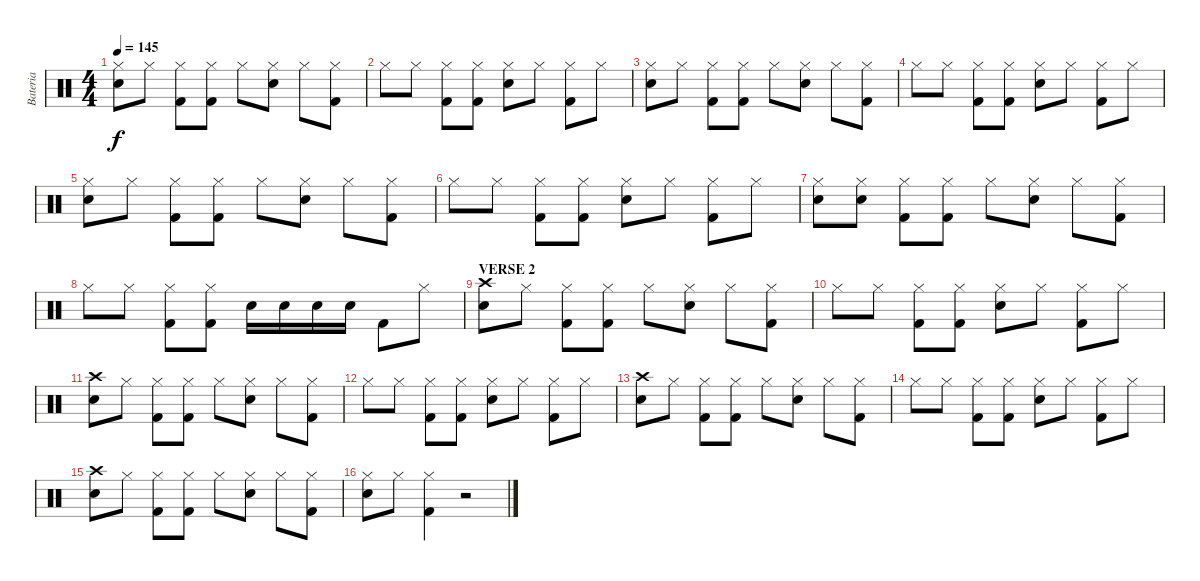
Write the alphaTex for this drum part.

\track ("Bateria" "Bateria") {instrument percussion}
\staff {score}
\articulation defaults
\ts (4 4)
\tempo 145
\clef neutral
\ks c
("Hi-Hat (closed)" "Snare (hit) 2").8{dy f} "Hi-Hat (closed)".8 ("Hi-Hat (closed)" "Kick (hit) 2").8 ("Hi-Hat (closed)" "Kick (hit) 2").8 "Hi-Hat (closed)".8 ("Hi-Hat (closed)" "Snare (hit) 2").8 "Hi-Hat (closed)".8 ("Hi-Hat (closed)" "Kick (hit) 2").8 |
"Hi-Hat (closed)".8 "Hi-Hat (closed)".8 ("Hi-Hat (closed)" "Kick (hit) 2").8 ("Hi-Hat (closed)" "Kick (hit) 2").8 ("Hi-Hat (closed)" "Snare (hit) 2").8 "Hi-Hat (closed)".8 ("Hi-Hat (closed)" "Kick (hit) 2").8 "Hi-Hat (closed)".8 |
("Hi-Hat (closed)" "Snare (hit) 2").8 "Hi-Hat (closed)".8 ("Hi-Hat (closed)" "Kick (hit) 2").8 ("Hi-Hat (closed)" "Kick (hit) 2").8 "Hi-Hat (closed)".8 ("Hi-Hat (closed)" "Snare (hit) 2").8 "Hi-Hat (closed)".8 ("Hi-Hat (closed)" "Kick (hit) 2").8 |
"Hi-Hat (closed)".8 "Hi-Hat (closed)".8 ("Hi-Hat (closed)" "Kick (hit) 2").8 ("Hi-Hat (closed)" "Kick (hit) 2").8 ("Hi-Hat (closed)" "Snare (hit) 2").8 "Hi-Hat (closed)".8 ("Hi-Hat (closed)" "Kick (hit) 2").8 "Hi-Hat (closed)".8 |
("Hi-Hat (closed)" "Snare (hit) 2").8 "Hi-Hat (closed)".8 ("Hi-Hat (closed)" "Kick (hit) 2").8 ("Hi-Hat (closed)" "Kick (hit) 2").8 "Hi-Hat (closed)".8 ("Hi-Hat (closed)" "Snare (hit) 2").8 "Hi-Hat (closed)".8 ("Hi-Hat (closed)" "Kick (hit) 2").8 |
"Hi-Hat (closed)".8 "Hi-Hat (closed)".8 ("Hi-Hat (closed)" "Kick (hit) 2").8 ("Hi-Hat (closed)" "Kick (hit) 2").8 ("Hi-Hat (closed)" "Snare (hit) 2").8 "Hi-Hat (closed)".8 ("Hi-Hat (closed)" "Kick (hit) 2").8 "Hi-Hat (closed)".8 |
("Hi-Hat (closed)" "Snare (hit) 2").8 ("Snare (hit)" "Hi-Hat (closed)").8 ("Hi-Hat (closed)" "Kick (hit) 2").8 ("Hi-Hat (closed)" "Kick (hit) 2").8 "Hi-Hat (closed)".8 ("Hi-Hat (closed)" "Snare (hit) 2").8 "Hi-Hat (closed)".8 ("Hi-Hat (closed)" "Kick (hit) 2").8 |
"Hi-Hat (closed)".8 "Hi-Hat (closed)".8 ("Hi-Hat (closed)" "Kick (hit) 2").8 ("Hi-Hat (closed)" "Kick (hit) 2").8 "Snare (hit) 2".16 "Snare (hit) 2".16 "Snare (hit) 2".16 "Snare (hit) 2".16 "Kick (hit) 2".8 "Hi-Hat (closed)".8 |
\section ("" "VERSE 2")
("Crash high (hit)" "Snare (hit) 2").8 "Hi-Hat (closed)".8 ("Hi-Hat (closed)" "Kick (hit) 2").8 ("Hi-Hat (closed)" "Kick (hit) 2").8 "Hi-Hat (closed)".8 ("Hi-Hat (closed)" "Snare (hit) 2").8 "Hi-Hat (closed)".8 ("Hi-Hat (closed)" "Kick (hit) 2").8 |
"Hi-Hat (closed)".8 "Hi-Hat (closed)".8 ("Hi-Hat (closed)" "Kick (hit) 2").8 ("Hi-Hat (closed)" "Kick (hit) 2").8 ("Hi-Hat (closed)" "Snare (hit) 2").8 "Hi-Hat (closed)".8 ("Hi-Hat (closed)" "Kick (hit) 2").8 "Hi-Hat (closed)".8 |
("Crash high (hit)" "Snare (hit) 2").8 "Hi-Hat (closed)".8 ("Hi-Hat (closed)" "Kick (hit) 2").8 ("Hi-Hat (closed)" "Kick (hit) 2").8 "Hi-Hat (closed)".8 ("Hi-Hat (closed)" "Snare (hit) 2").8 "Hi-Hat (closed)".8 ("Hi-Hat (closed)" "Kick (hit) 2").8 |
"Hi-Hat (closed)".8 "Hi-Hat (closed)".8 ("Hi-Hat (closed)" "Kick (hit) 2").8 ("Hi-Hat (closed)" "Kick (hit) 2").8 ("Hi-Hat (closed)" "Snare (hit) 2").8 "Hi-Hat (closed)".8 ("Hi-Hat (closed)" "Kick (hit) 2").8 "Hi-Hat (closed)".8 |
("Crash high (hit)" "Snare (hit) 2").8 "Hi-Hat (closed)".8 ("Hi-Hat (closed)" "Kick (hit) 2").8 ("Hi-Hat (closed)" "Kick (hit) 2").8 "Hi-Hat (closed)".8 ("Hi-Hat (closed)" "Snare (hit) 2").8 "Hi-Hat (closed)".8 ("Hi-Hat (closed)" "Kick (hit) 2").8 |
"Hi-Hat (closed)".8 "Hi-Hat (closed)".8 ("Hi-Hat (closed)" "Kick (hit) 2").8 ("Hi-Hat (closed)" "Kick (hit) 2").8 ("Hi-Hat (closed)" "Snare (hit) 2").8 "Hi-Hat (closed)".8 ("Hi-Hat (closed)" "Kick (hit) 2").8 "Hi-Hat (closed)".8 |
("Crash high (hit)" "Snare (hit) 2").8 "Hi-Hat (closed)".8 ("Hi-Hat (closed)" "Kick (hit) 2").8 ("Hi-Hat (closed)" "Kick (hit) 2").8 "Hi-Hat (closed)".8 ("Hi-Hat (closed)" "Snare (hit) 2").8 "Hi-Hat (closed)".8 ("Hi-Hat (closed)" "Kick (hit) 2").8 |
("Hi-Hat (closed)" "Snare (hit) 2").8 "Hi-Hat (closed)".8 ("Hi-Hat (closed)" "Kick (hit) 2").4 r.2
